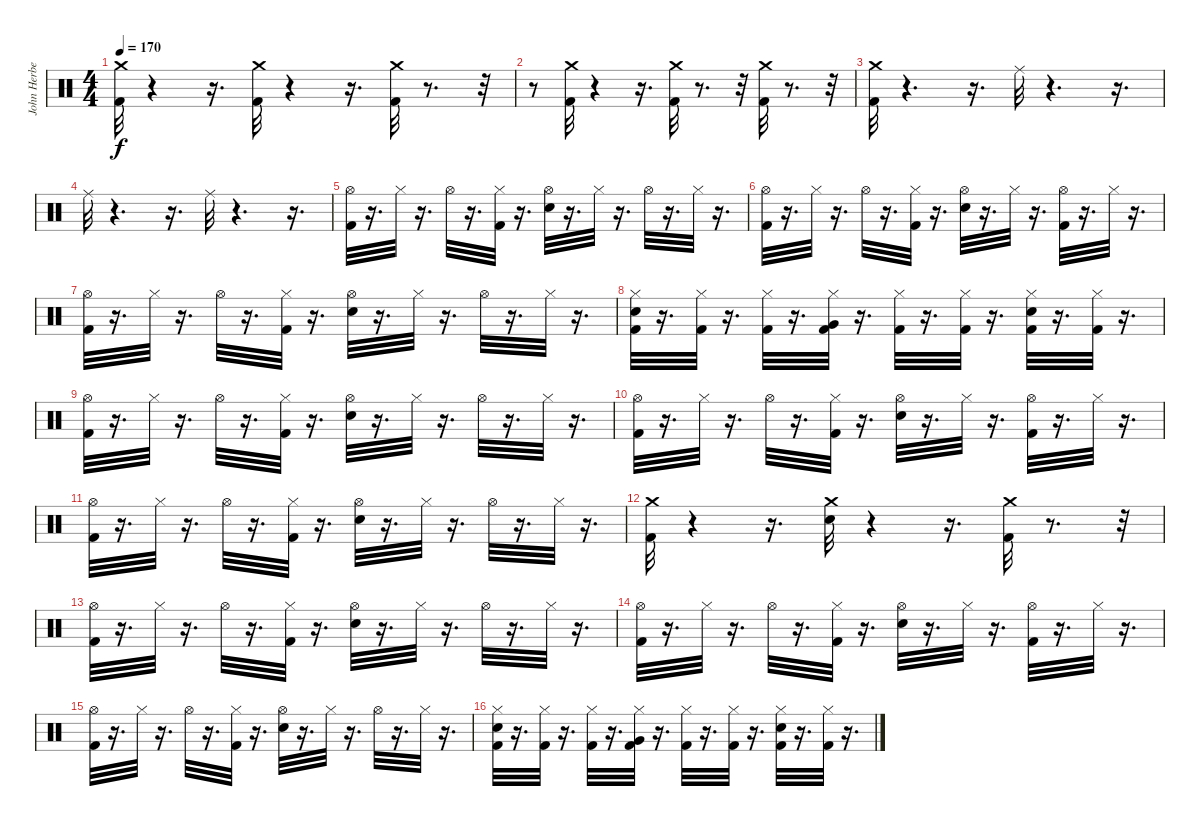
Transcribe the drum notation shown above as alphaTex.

\track ("John Herbert" "John Herbe") {instrument percussion}
\staff {score}
\articulation defaults
\ts (4 4)
\tempo 170
\clef neutral
\ks c
("Kick (hit) 2" "Crash medium (hit)").32{dy f} r.4 r.16{d} ("Kick (hit) 2" "Crash medium (hit)").32 r.4 r.16{d} ("Kick (hit) 2" "Crash medium (hit)").32 r.8{d} r.32 |
r.8 ("Kick (hit) 2" "Crash medium (hit)").32 r.4 r.16{d} ("Kick (hit) 2" "Crash medium (hit)").32 r.8{d} r.32 ("Kick (hit) 2" "Crash medium (hit)").32 r.8{d} r.32 |
("Kick (hit) 2" "Crash medium (hit)").32 r.4{d} r.16{d} "Ride (middle)".32 r.4{d} r.16{d} |
"Ride (middle)".32 r.4{d} r.16{d} "Ride (middle)".32 r.4{d} r.16{d} |
("Kick (hit) 2" "Hi-Hat (open)").32 r.16{d} "Hi-Hat (closed)".32 r.16{d} "Hi-Hat (open)".32 r.16{d} ("Kick (hit) 2" "Hi-Hat (closed)").32 r.16{d} ("Snare (hit) 2" "Hi-Hat (open)").32 r.16{d} "Hi-Hat (closed)".32 r.16{d} "Hi-Hat (open)".32 r.16{d} "Hi-Hat (closed)".32 r.16{d} |
("Hi-Hat (open)" "Kick (hit) 2").32 r.16{d} "Hi-Hat (closed)".32 r.16{d} "Hi-Hat (open)".32 r.16{d} ("Hi-Hat (closed)" "Kick (hit) 2").32 r.16{d} ("Snare (hit) 2" "Hi-Hat (open)").32 r.16{d} "Hi-Hat (closed)".32 r.16{d} ("Kick (hit) 2" "Hi-Hat (open)").32 r.16{d} "Hi-Hat (closed)".32 r.16{d} |
("Kick (hit) 2" "Hi-Hat (open)").32 r.16{d} "Hi-Hat (closed)".32 r.16{d} "Hi-Hat (open)".32 r.16{d} ("Kick (hit) 2" "Hi-Hat (closed)").32 r.16{d} ("Snare (hit) 2" "Hi-Hat (open)").32 r.16{d} "Hi-Hat (closed)".32 r.16{d} "Hi-Hat (open)".32 r.16{d} "Hi-Hat (closed)".32 r.16{d} |
("Snare (hit) 2" "Hi-Hat (closed)" "Kick (hit) 2").32 r.16{d} ("Hi-Hat (closed)" "Kick (hit) 2").32 r.16{d} ("Hi-Hat (closed)" "Kick (hit) 2").32 r.16{d} ("Very Low Tom (hit)" "Hi-Hat (closed)" "Kick (hit) 2").32 r.16{d} ("Hi-Hat (closed)" "Kick (hit) 2").32 r.16{d} ("Hi-Hat (closed)" "Kick (hit) 2").32 r.16{d} ("Snare (hit) 2" "Hi-Hat (closed)" "Kick (hit) 2").32 r.16{d} ("Hi-Hat (closed)" "Kick (hit) 2").32 r.16{d} |
("Kick (hit) 2" "Hi-Hat (open)").32 r.16{d} "Hi-Hat (closed)".32 r.16{d} "Hi-Hat (open)".32 r.16{d} ("Kick (hit) 2" "Hi-Hat (closed)").32 r.16{d} ("Snare (hit) 2" "Hi-Hat (open)").32 r.16{d} "Hi-Hat (closed)".32 r.16{d} "Hi-Hat (open)".32 r.16{d} "Hi-Hat (closed)".32 r.16{d} |
("Hi-Hat (open)" "Kick (hit) 2").32 r.16{d} "Hi-Hat (closed)".32 r.16{d} "Hi-Hat (open)".32 r.16{d} ("Hi-Hat (closed)" "Kick (hit) 2").32 r.16{d} ("Snare (hit) 2" "Hi-Hat (open)").32 r.16{d} "Hi-Hat (closed)".32 r.16{d} ("Kick (hit) 2" "Hi-Hat (open)").32 r.16{d} "Hi-Hat (closed)".32 r.16{d} |
("Kick (hit) 2" "Hi-Hat (open)").32 r.16{d} "Hi-Hat (closed)".32 r.16{d} "Hi-Hat (open)".32 r.16{d} ("Kick (hit) 2" "Hi-Hat (closed)").32 r.16{d} ("Snare (hit) 2" "Hi-Hat (open)").32 r.16{d} "Hi-Hat (closed)".32 r.16{d} "Hi-Hat (open)".32 r.16{d} "Hi-Hat (closed)".32 r.16{d} |
("Kick (hit) 2" "Crash medium (hit)").32 r.4 r.16{d} ("Snare (hit) 2" "Crash medium (hit)").32 r.4 r.16{d} ("Kick (hit) 2" "Crash medium (hit)").32 r.8{d} r.32 |
("Kick (hit) 2" "Hi-Hat (open)").32 r.16{d} "Hi-Hat (closed)".32 r.16{d} "Hi-Hat (open)".32 r.16{d} ("Kick (hit) 2" "Hi-Hat (closed)").32 r.16{d} ("Snare (hit) 2" "Hi-Hat (open)").32 r.16{d} "Hi-Hat (closed)".32 r.16{d} "Hi-Hat (open)".32 r.16{d} "Hi-Hat (closed)".32 r.16{d} |
("Hi-Hat (open)" "Kick (hit) 2").32 r.16{d} "Hi-Hat (closed)".32 r.16{d} "Hi-Hat (open)".32 r.16{d} ("Hi-Hat (closed)" "Kick (hit) 2").32 r.16{d} ("Snare (hit) 2" "Hi-Hat (open)").32 r.16{d} "Hi-Hat (closed)".32 r.16{d} ("Kick (hit) 2" "Hi-Hat (open)").32 r.16{d} "Hi-Hat (closed)".32 r.16{d} |
("Kick (hit) 2" "Hi-Hat (open)").32 r.16{d} "Hi-Hat (closed)".32 r.16{d} "Hi-Hat (open)".32 r.16{d} ("Kick (hit) 2" "Hi-Hat (closed)").32 r.16{d} ("Snare (hit) 2" "Hi-Hat (open)").32 r.16{d} "Hi-Hat (closed)".32 r.16{d} "Hi-Hat (open)".32 r.16{d} "Hi-Hat (closed)".32 r.16{d} |
("Snare (hit) 2" "Hi-Hat (closed)" "Kick (hit) 2").32 r.16{d} ("Hi-Hat (closed)" "Kick (hit) 2").32 r.16{d} ("Hi-Hat (closed)" "Kick (hit) 2").32 r.16{d} ("Very Low Tom (hit)" "Hi-Hat (closed)" "Kick (hit) 2").32 r.16{d} ("Hi-Hat (closed)" "Kick (hit) 2").32 r.16{d} ("Hi-Hat (closed)" "Kick (hit) 2").32 r.16{d} ("Snare (hit) 2" "Hi-Hat (closed)" "Kick (hit) 2").32 r.16{d} ("Hi-Hat (closed)" "Kick (hit) 2").32 r.16{d}
